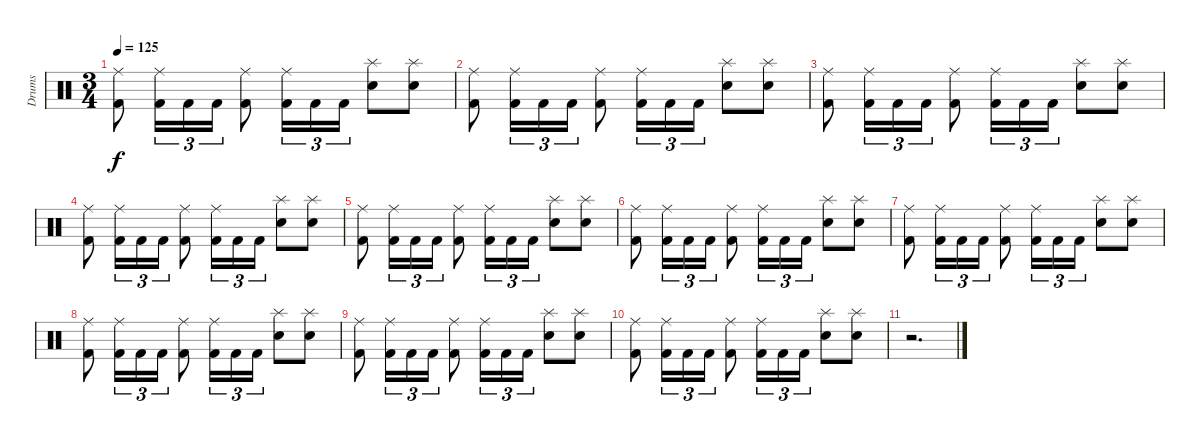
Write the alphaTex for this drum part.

\track ("Drums" "Drums") {instrument percussion}
\staff {score}
\articulation defaults
\ts (3 4)
\tempo 125
\clef neutral
\ks c
("Kick (hit) 2" "Ride (middle)").8{dy f} ("Kick (hit) 2" "Ride (middle)").16{tu (3 2)} "Kick (hit) 2".16{tu (3 2)} "Kick (hit) 2".16{tu (3 2)} ("Kick (hit) 2" "Ride (middle)").8 ("Kick (hit) 2" "Ride (middle)").16{tu (3 2)} "Kick (hit) 2".16{tu (3 2)} "Kick (hit) 2".16{tu (3 2)} ("Splash (hit)" "Electric Snare (hit)").8 ("Splash (hit)" "Electric Snare (hit)").8 |
("Kick (hit) 2" "Ride (middle)").8 ("Kick (hit) 2" "Ride (middle)").16{tu (3 2)} "Kick (hit) 2".16{tu (3 2)} "Kick (hit) 2".16{tu (3 2)} ("Kick (hit) 2" "Ride (middle)").8 ("Kick (hit) 2" "Ride (middle)").16{tu (3 2)} "Kick (hit) 2".16{tu (3 2)} "Kick (hit) 2".16{tu (3 2)} ("Splash (hit)" "Electric Snare (hit)").8 ("Splash (hit)" "Electric Snare (hit)").8 |
("Kick (hit) 2" "Ride (middle)").8 ("Kick (hit) 2" "Ride (middle)").16{tu (3 2)} "Kick (hit) 2".16{tu (3 2)} "Kick (hit) 2".16{tu (3 2)} ("Kick (hit) 2" "Ride (middle)").8 ("Kick (hit) 2" "Ride (middle)").16{tu (3 2)} "Kick (hit) 2".16{tu (3 2)} "Kick (hit) 2".16{tu (3 2)} ("Splash (hit)" "Electric Snare (hit)").8 ("Splash (hit)" "Electric Snare (hit)").8 |
("Kick (hit) 2" "Ride (middle)").8 ("Kick (hit) 2" "Ride (middle)").16{tu (3 2)} "Kick (hit) 2".16{tu (3 2)} "Kick (hit) 2".16{tu (3 2)} ("Kick (hit) 2" "Ride (middle)").8 ("Kick (hit) 2" "Ride (middle)").16{tu (3 2)} "Kick (hit) 2".16{tu (3 2)} "Kick (hit) 2".16{tu (3 2)} ("Splash (hit)" "Electric Snare (hit)").8 ("Splash (hit)" "Electric Snare (hit)").8 |
("Kick (hit) 2" "Ride (middle)").8 ("Kick (hit) 2" "Ride (middle)").16{tu (3 2)} "Kick (hit) 2".16{tu (3 2)} "Kick (hit) 2".16{tu (3 2)} ("Kick (hit) 2" "Ride (middle)").8 ("Kick (hit) 2" "Ride (middle)").16{tu (3 2)} "Kick (hit) 2".16{tu (3 2)} "Kick (hit) 2".16{tu (3 2)} ("Splash (hit)" "Electric Snare (hit)").8 ("Splash (hit)" "Electric Snare (hit)").8 |
("Kick (hit) 2" "Ride (middle)").8 ("Kick (hit) 2" "Ride (middle)").16{tu (3 2)} "Kick (hit) 2".16{tu (3 2)} "Kick (hit) 2".16{tu (3 2)} ("Kick (hit) 2" "Ride (middle)").8 ("Kick (hit) 2" "Ride (middle)").16{tu (3 2)} "Kick (hit) 2".16{tu (3 2)} "Kick (hit) 2".16{tu (3 2)} ("Splash (hit)" "Electric Snare (hit)").8 ("Splash (hit)" "Electric Snare (hit)").8 |
("Kick (hit) 2" "Ride (middle)").8 ("Kick (hit) 2" "Ride (middle)").16{tu (3 2)} "Kick (hit) 2".16{tu (3 2)} "Kick (hit) 2".16{tu (3 2)} ("Kick (hit) 2" "Ride (middle)").8 ("Kick (hit) 2" "Ride (middle)").16{tu (3 2)} "Kick (hit) 2".16{tu (3 2)} "Kick (hit) 2".16{tu (3 2)} ("Splash (hit)" "Electric Snare (hit)").8 ("Splash (hit)" "Electric Snare (hit)").8 |
("Kick (hit) 2" "Ride (middle)").8 ("Kick (hit) 2" "Ride (middle)").16{tu (3 2)} "Kick (hit) 2".16{tu (3 2)} "Kick (hit) 2".16{tu (3 2)} ("Kick (hit) 2" "Ride (middle)").8 ("Kick (hit) 2" "Ride (middle)").16{tu (3 2)} "Kick (hit) 2".16{tu (3 2)} "Kick (hit) 2".16{tu (3 2)} ("Splash (hit)" "Electric Snare (hit)").8 ("Splash (hit)" "Electric Snare (hit)").8 |
("Kick (hit) 2" "Ride (middle)").8 ("Kick (hit) 2" "Ride (middle)").16{tu (3 2)} "Kick (hit) 2".16{tu (3 2)} "Kick (hit) 2".16{tu (3 2)} ("Kick (hit) 2" "Ride (middle)").8 ("Kick (hit) 2" "Ride (middle)").16{tu (3 2)} "Kick (hit) 2".16{tu (3 2)} "Kick (hit) 2".16{tu (3 2)} ("Splash (hit)" "Electric Snare (hit)").8 ("Splash (hit)" "Electric Snare (hit)").8 |
("Kick (hit) 2" "Ride (middle)").8 ("Kick (hit) 2" "Ride (middle)").16{tu (3 2)} "Kick (hit) 2".16{tu (3 2)} "Kick (hit) 2".16{tu (3 2)} ("Kick (hit) 2" "Ride (middle)").8 ("Kick (hit) 2" "Ride (middle)").16{tu (3 2)} "Kick (hit) 2".16{tu (3 2)} "Kick (hit) 2".16{tu (3 2)} ("Splash (hit)" "Electric Snare (hit)").8 ("Splash (hit)" "Electric Snare (hit)").8 |
r.2{d}
